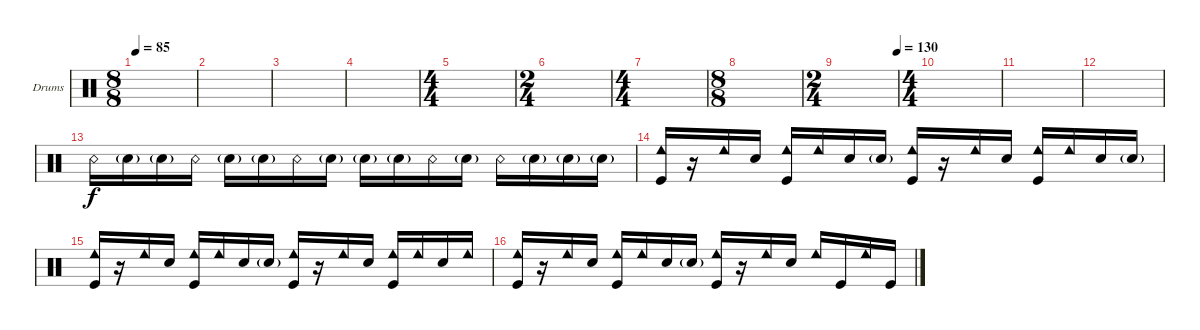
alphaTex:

\defaultSystemsLayout 4
\bracketExtendMode groupsimilarinstruments
\firstSystemTrackNameOrientation horizontal
\otherSystemsTrackNameOrientation horizontal
\track ("Godd" "Drums") {instrument percussion}
\staff {score}
\articulation defaults
\ts (8 8)
\tempo 85
\clef neutral
\scale
0.333333
\ks c
|
\scale
0.333333 |
\scale
0.263889 |
\scale
0.263889 |
\ts (4 4)
\scale
0.472222 |
\ts (2 4)
\scale
0.263889 |
\ts (4 4)
\scale
0.263889 |
\ts (8 8)
\scale
0.472222 |
\ts (2 4)
\tempo (130 1)
\scale
0.390805 |
\ts (4 4)
\scale
0.390805 |
\scale
0.218391 |
\scale
0.333333 |
\scale
0.333333 "Snare (rim shot)".16 "Snare (hit) 2"{g}.16 "Snare (hit) 2"{g}.16 "Snare (rim shot)".16 "Snare (hit) 2"{g}.16 "Snare (hit) 2"{g}.16 "Snare (rim shot)".16 "Snare (hit) 2"{g}.16 "Snare (hit) 2"{g}.16 "Snare (hit) 2"{g}.16 "Snare (rim shot)".16 "Snare (hit) 2"{g}.16 "Snare (rim shot)".16 "Snare (hit) 2"{g}.16 "Snare (hit) 2"{g}.16 "Snare (hit) 2"{g}.16 |
\scale
0.333333 ("Cowbell low (hit)" "Kick (hit)").16 r.16 "Cowbell low (hit)".16 "Snare (hit) 2".16 ("Cowbell low (hit)" "Kick (hit)").16 "Cowbell low (hit)".16 "Snare (hit) 2".16 "Snare (hit) 2"{g}.16 ("Cowbell low (hit)" "Kick (hit)").16 r.16 "Cowbell low (hit)".16 "Snare (hit) 2".16 ("Cowbell low (hit)" "Kick (hit)").16 "Cowbell low (hit)".16 "Snare (hit) 2".16 "Snare (hit) 2"{g}.16 |
\scale
0.333333 ("Cowbell low (hit)" "Kick (hit)").16 r.16 "Cowbell low (hit)".16 "Snare (hit) 2".16 ("Cowbell low (hit)" "Kick (hit)").16 "Cowbell low (hit)".16 "Snare (hit) 2".16 "Snare (hit) 2"{g}.16 ("Cowbell low (hit)" "Kick (hit)").16 r.16 "Cowbell low (hit)".16 "Snare (hit) 2".16 ("Cowbell low (hit)" "Kick (hit)").16 "Cowbell low (hit)".16 "Snare (hit) 2".16 "Cowbell low (hit)".16 |
\scale
0.333333 ("Cowbell low (hit)" "Kick (hit)").16 r.16 "Cowbell low (hit)".16 "Snare (hit) 2".16 ("Cowbell low (hit)" "Kick (hit)").16 "Cowbell low (hit)".16 "Snare (hit) 2".16 "Snare (hit) 2"{g}.16 ("Cowbell low (hit)" "Kick (hit)").16 r.16 "Cowbell low (hit)".16 "Snare (hit) 2".16 "Cowbell low (hit)".16 "Kick (hit)".16 "Cowbell low (hit)".16 "Kick (hit)".16
